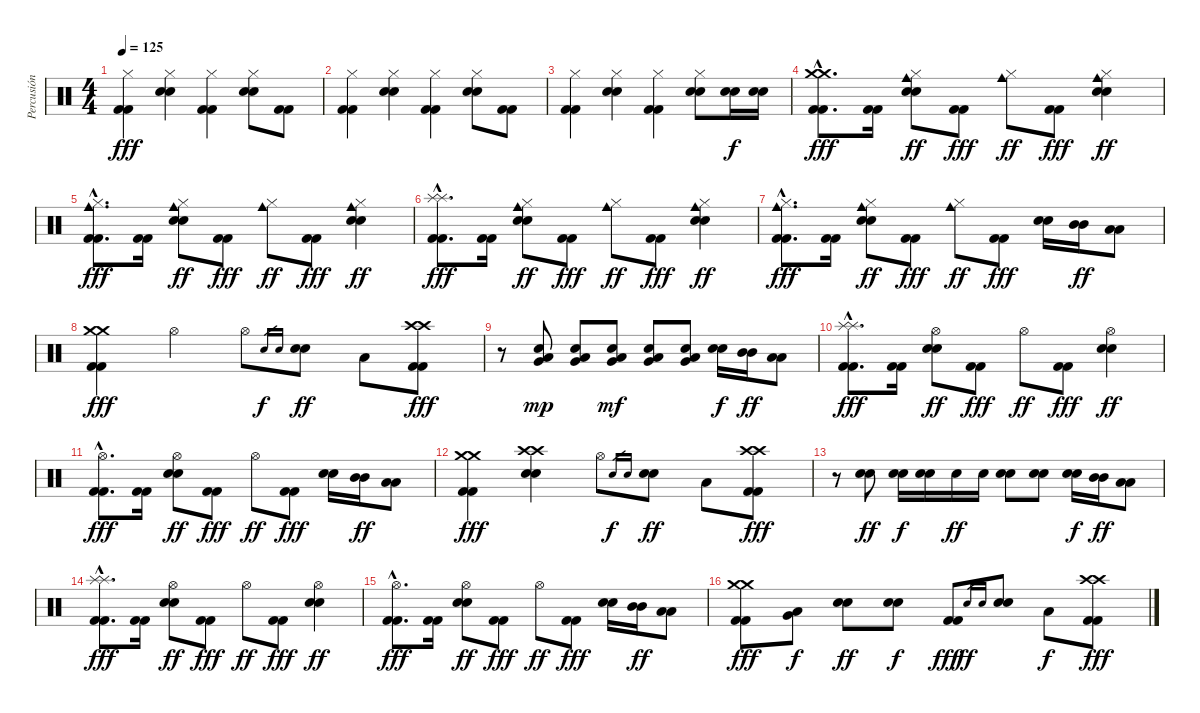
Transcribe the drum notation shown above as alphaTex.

\track ("Percusión" "Percusión") {instrument percussion}
\staff {score}
\articulation defaults
\ts (4 4)
\tempo 125
\clef neutral
\ks c
("Hi-Hat (closed)" "Kick (hit) 2" "Kick (hit) 2").4{dy fff} ("Hi-Hat (closed)" "Electric Snare (hit)" "Electric Snare (hit)").4 ("Hi-Hat (closed)" "Kick (hit) 2" "Kick (hit) 2").4 ("Hi-Hat (closed)" "Electric Snare (hit)" "Electric Snare (hit)").8 ("Kick (hit) 2" "Kick (hit) 2").8 |
("Hi-Hat (closed)" "Kick (hit) 2" "Kick (hit) 2").4 ("Hi-Hat (closed)" "Electric Snare (hit)" "Electric Snare (hit)").4 ("Hi-Hat (closed)" "Kick (hit) 2" "Kick (hit) 2").4 ("Hi-Hat (closed)" "Electric Snare (hit)" "Electric Snare (hit)").8 ("Kick (hit) 2" "Kick (hit) 2").8 |
("Hi-Hat (closed)" "Kick (hit) 2" "Kick (hit) 2").4 ("Hi-Hat (closed)" "Electric Snare (hit)" "Electric Snare (hit)").4 ("Hi-Hat (closed)" "Kick (hit) 2" "Kick (hit) 2").4 ("Hi-Hat (closed)" "Electric Snare (hit)" "Electric Snare (hit)").8 ("Electric Snare (hit)" "Electric Snare (hit)").16{dy f} ("Electric Snare (hit)" "Electric Snare (hit)").16 |
("Crash medium (hit)"{hac} "Crash medium (hit)"{hac} "Kick (hit) 2"{hac} "Kick (hit) 2"{hac}).8{d dy fff} ("Kick (hit) 2" "Kick (hit) 2").16 ("Cowbell medium (hit)" "Hi-Hat (closed)" "Electric Snare (hit)" "Electric Snare (hit)").8{dy ff} ("Kick (hit) 2" "Kick (hit) 2").8{dy fff} ("Cowbell medium (hit)" "Hi-Hat (closed)").8{dy ff} ("Kick (hit) 2" "Kick (hit) 2").8{dy fff} ("Cowbell medium (hit)" "Hi-Hat (closed)" "Electric Snare (hit)" "Electric Snare (hit)").4{dy ff} |
("Cowbell medium (hit)"{hac} "Hi-Hat (closed)"{hac} "Kick (hit) 2"{hac} "Kick (hit) 2"{hac}).8{d dy fff} ("Kick (hit) 2" "Kick (hit) 2").16 ("Cowbell medium (hit)" "Hi-Hat (closed)" "Electric Snare (hit)" "Electric Snare (hit)").8{dy ff} ("Kick (hit) 2" "Kick (hit) 2").8{dy fff} ("Cowbell medium (hit)" "Hi-Hat (closed)").8{dy ff} ("Kick (hit) 2" "Kick (hit) 2").8{dy fff} ("Cowbell medium (hit)" "Hi-Hat (closed)" "Electric Snare (hit)" "Electric Snare (hit)").4{dy ff} |
("Splash (hit)"{hac} "Splash (hit)"{hac} "Kick (hit) 2"{hac} "Kick (hit) 2"{hac}).8{d dy fff} ("Kick (hit) 2" "Kick (hit) 2").16 ("Cowbell medium (hit)" "Hi-Hat (closed)" "Electric Snare (hit)" "Electric Snare (hit)").8{dy ff} ("Kick (hit) 2" "Kick (hit) 2").8{dy fff} ("Cowbell medium (hit)" "Hi-Hat (closed)").8{dy ff} ("Kick (hit) 2" "Kick (hit) 2").8{dy fff} ("Cowbell medium (hit)" "Hi-Hat (closed)" "Electric Snare (hit)" "Electric Snare (hit)").4{dy ff} |
("Cowbell medium (hit)"{hac} "Hi-Hat (closed)"{hac} "Kick (hit) 2"{hac} "Kick (hit) 2"{hac}).8{d dy fff} ("Kick (hit) 2" "Kick (hit) 2").16 ("Cowbell medium (hit)" "Hi-Hat (closed)" "Electric Snare (hit)" "Electric Snare (hit)").8{dy ff} ("Kick (hit) 2" "Kick (hit) 2").8{dy fff} ("Cowbell medium (hit)" "Hi-Hat (closed)").8{dy ff} ("Kick (hit) 2" "Kick (hit) 2").8{dy fff} ("Electric Snare (hit)" "Electric Snare (hit)").16 ("Mid Tom (hit)" "Mid Tom (hit)").16{dy ff} ("Low Tom (hit)" "Low Tom (hit)").8 |
("Crash medium (hit)" "Crash medium (hit)" "Kick (hit) 2" "Kick (hit) 2").4{dy fff} "Hi-Hat (open)".4 "Hi-Hat (open)".8 "Electric Snare (hit)".16{gr dy f} "Electric Snare (hit)".16{gr} ("Electric Snare (hit)" "Electric Snare (hit)").8{dy ff} "Low Tom (hit)".8 ("Crash high (hit)" "Crash high (hit)" "Kick (hit) 2" "Kick (hit) 2").8{dy fff} |
r.8 ("Electric Snare (hit)" "Low Tom (hit)" "Very Low Tom (hit)").8{dy mp} ("Electric Snare (hit)" "Low Tom (hit)" "Very Low Tom (hit)").8 ("Electric Snare (hit)" "Low Tom (hit)" "Very Low Tom (hit)").8{dy mf} ("Electric Snare (hit)" "Low Tom (hit)" "Very Low Tom (hit)").8 ("Electric Snare (hit)" "Low Tom (hit)" "Very Low Tom (hit)").8 ("Electric Snare (hit)" "Electric Snare (hit)").16{dy f} ("Mid Tom (hit)" "Mid Tom (hit)").16{dy ff} ("Low Tom (hit)" "Low Tom (hit)").8 |
("Splash (hit)"{hac} "Splash (hit)"{hac} "Kick (hit) 2"{hac} "Kick (hit) 2"{hac}).8{d dy fff} ("Kick (hit) 2" "Kick (hit) 2").16 ("Hi-Hat (open)" "Electric Snare (hit)" "Electric Snare (hit)").8{dy ff} ("Kick (hit) 2" "Kick (hit) 2").8{dy fff} "Hi-Hat (open)".8{dy ff} ("Kick (hit) 2" "Kick (hit) 2").8{dy fff} ("Hi-Hat (open)" "Electric Snare (hit)" "Electric Snare (hit)").4{dy ff} |
("Hi-Hat (open)"{hac} "Kick (hit) 2"{hac} "Kick (hit) 2"{hac}).8{d dy fff} ("Kick (hit) 2" "Kick (hit) 2").16 ("Hi-Hat (open)" "Electric Snare (hit)" "Electric Snare (hit)").8{dy ff} ("Kick (hit) 2" "Kick (hit) 2").8{dy fff} "Hi-Hat (open)".8{dy ff} ("Kick (hit) 2" "Kick (hit) 2").8{dy fff} ("Electric Snare (hit)" "Electric Snare (hit)").16 ("Mid Tom (hit)" "Mid Tom (hit)").16{dy ff} ("Low Tom (hit)" "Low Tom (hit)").8 |
("Crash medium (hit)" "Crash medium (hit)" "Kick (hit) 2" "Kick (hit) 2").4{dy fff} ("Crash high (hit)" "Crash high (hit)" "Electric Snare (hit)" "Electric Snare (hit)").4 "Hi-Hat (open)".8 "Electric Snare (hit)".16{gr dy f} "Electric Snare (hit)".16{gr} ("Electric Snare (hit)" "Electric Snare (hit)").8{dy ff} "Low Tom (hit)".8 ("Crash high (hit)" "Crash high (hit)" "Kick (hit) 2" "Kick (hit) 2").8{dy fff} |
r.8 ("Electric Snare (hit)" "Electric Snare (hit)").8{dy ff} ("Electric Snare (hit)" "Electric Snare (hit)").16{dy f} ("Electric Snare (hit)" "Electric Snare (hit)").16 "Electric Snare (hit)".16{dy ff} "Electric Snare (hit)".16 ("Electric Snare (hit)" "Electric Snare (hit)").8 ("Electric Snare (hit)" "Electric Snare (hit)").8 ("Electric Snare (hit)" "Electric Snare (hit)").16{dy f} ("Mid Tom (hit)" "Mid Tom (hit)").16{dy ff} ("Low Tom (hit)" "Low Tom (hit)").8 |
("Splash (hit)"{hac} "Splash (hit)"{hac} "Kick (hit) 2"{hac} "Kick (hit) 2"{hac}).8{d dy fff} ("Kick (hit) 2" "Kick (hit) 2").16 ("Hi-Hat (open)" "Electric Snare (hit)" "Electric Snare (hit)").8{dy ff} ("Kick (hit) 2" "Kick (hit) 2").8{dy fff} "Hi-Hat (open)".8{dy ff} ("Kick (hit) 2" "Kick (hit) 2").8{dy fff} ("Hi-Hat (open)" "Electric Snare (hit)" "Electric Snare (hit)").4{dy ff} |
("Hi-Hat (open)"{hac} "Kick (hit) 2"{hac} "Kick (hit) 2"{hac}).8{d dy fff} ("Kick (hit) 2" "Kick (hit) 2").16 ("Hi-Hat (open)" "Electric Snare (hit)" "Electric Snare (hit)").8{dy ff} ("Kick (hit) 2" "Kick (hit) 2").8{dy fff} "Hi-Hat (open)".8{dy ff} ("Kick (hit) 2" "Kick (hit) 2").8{dy fff} ("Electric Snare (hit)" "Electric Snare (hit)").16 ("Mid Tom (hit)" "Mid Tom (hit)").16{dy ff} ("Low Tom (hit)" "Low Tom (hit)").8 |
("Crash medium (hit)" "Crash medium (hit)" "Kick (hit) 2" "Kick (hit) 2").8{dy fff} ("Very Low Tom (hit)" "Low Tom (hit)").8{dy f} ("Electric Snare (hit)" "Electric Snare (hit)").8{dy ff} ("Electric Snare (hit)" "Electric Snare (hit)").8{dy f} ("Kick (hit) 2" "Kick (hit) 2").8{dy fff} "Electric Snare (hit)".16{gr dy ff} "Electric Snare (hit)".16{gr} ("Electric Snare (hit)" "Electric Snare (hit)").8 "Low Tom (hit)".8{dy f} ("Crash high (hit)" "Crash high (hit)" "Kick (hit) 2" "Kick (hit) 2").8{dy fff}
